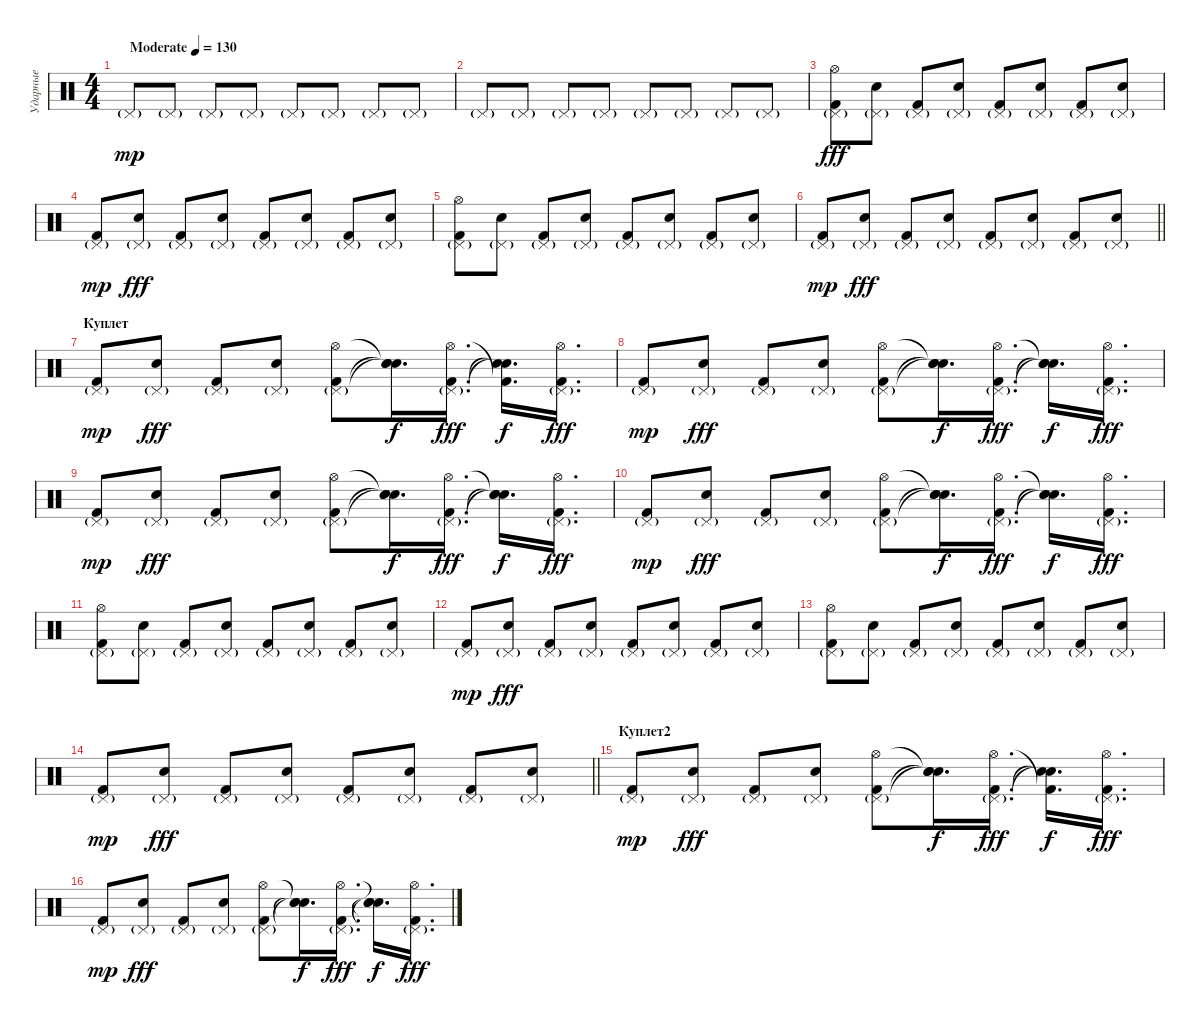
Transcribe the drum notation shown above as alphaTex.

\track ("Ударные" "Ударные") {instrument percussion}
\staff {score}
\articulation defaults
\ts (4 4)
\tempo (130 "Moderate")
\clef neutral
\ks c "Pedal Hi-Hat (hit)"{g}.8{dy mp} "Pedal Hi-Hat (hit)"{g}.8 "Pedal Hi-Hat (hit)"{g}.8 "Pedal Hi-Hat (hit)"{g}.8 "Pedal Hi-Hat (hit)"{g}.8 "Pedal Hi-Hat (hit)"{g}.8 "Pedal Hi-Hat (hit)"{g}.8 "Pedal Hi-Hat (hit)"{g}.8
|
"Pedal Hi-Hat (hit)"{g}.8 "Pedal Hi-Hat (hit)"{g}.8 "Pedal Hi-Hat (hit)"{g}.8 "Pedal Hi-Hat (hit)"{g}.8 "Pedal Hi-Hat (hit)"{g}.8 "Pedal Hi-Hat (hit)"{g}.8 "Pedal Hi-Hat (hit)"{g}.8 "Pedal Hi-Hat (hit)"{g}.8 |
("Pedal Hi-Hat (hit)"{g} "Kick (hit) 2" "Hi-Hat (open)").8{dy fff} ("Pedal Hi-Hat (hit)"{g} "Electric Snare (hit)").8 ("Pedal Hi-Hat (hit)"{g} "Kick (hit) 2").8 ("Pedal Hi-Hat (hit)"{g} "Electric Snare (hit)").8 ("Pedal Hi-Hat (hit)"{g} "Kick (hit) 2").8 ("Pedal Hi-Hat (hit)"{g} "Electric Snare (hit)").8 ("Pedal Hi-Hat (hit)"{g} "Kick (hit) 2").8 ("Pedal Hi-Hat (hit)"{g} "Electric Snare (hit)").8 |
("Pedal Hi-Hat (hit)"{g} "Kick (hit) 2").8{dy mp} ("Pedal Hi-Hat (hit)"{g} "Electric Snare (hit)").8{dy fff} ("Pedal Hi-Hat (hit)"{g} "Kick (hit) 2").8 ("Pedal Hi-Hat (hit)"{g} "Electric Snare (hit)").8 ("Pedal Hi-Hat (hit)"{g} "Kick (hit) 2").8 ("Pedal Hi-Hat (hit)"{g} "Electric Snare (hit)").8 ("Pedal Hi-Hat (hit)"{g} "Kick (hit) 2").8 ("Pedal Hi-Hat (hit)"{g} "Electric Snare (hit)").8 |
("Pedal Hi-Hat (hit)"{g} "Kick (hit) 2" "Hi-Hat (open)").8 ("Pedal Hi-Hat (hit)"{g} "Electric Snare (hit)").8 ("Pedal Hi-Hat (hit)"{g} "Kick (hit) 2").8 ("Pedal Hi-Hat (hit)"{g} "Electric Snare (hit)").8 ("Pedal Hi-Hat (hit)"{g} "Kick (hit) 2").8 ("Pedal Hi-Hat (hit)"{g} "Electric Snare (hit)").8 ("Pedal Hi-Hat (hit)"{g} "Kick (hit) 2").8 ("Pedal Hi-Hat (hit)"{g} "Electric Snare (hit)").8 |
\barLineRight lightlight
("Pedal Hi-Hat (hit)"{g} "Kick (hit) 2").8{dy mp} ("Pedal Hi-Hat (hit)"{g} "Electric Snare (hit)").8{dy fff} ("Pedal Hi-Hat (hit)"{g} "Kick (hit) 2").8 ("Pedal Hi-Hat (hit)"{g} "Electric Snare (hit)").8 ("Pedal Hi-Hat (hit)"{g} "Kick (hit) 2").8 ("Pedal Hi-Hat (hit)"{g} "Electric Snare (hit)").8 ("Pedal Hi-Hat (hit)"{g} "Kick (hit) 2").8 ("Pedal Hi-Hat (hit)"{g} "Electric Snare (hit)").8 |
\section ("" "Куплет")
("Pedal Hi-Hat (hit)"{g} "Kick (hit) 2").8{dy mp} ("Pedal Hi-Hat (hit)"{g} "Electric Snare (hit)").8{dy fff} ("Pedal Hi-Hat (hit)"{g} "Kick (hit) 2").8 ("Pedal Hi-Hat (hit)"{g} "Electric Snare (hit)").8 ("Pedal Hi-Hat (hit)"{g} "Hi-Hat (open)" "Kick (hit) 2").8 ("Snare (hit)"{t} "Snare (hit)"{t} "Snare (hit)"{t}).16{d dy f} ("Pedal Hi-Hat (hit)"{g} "Hi-Hat (open)" "Kick (hit) 2").16{d dy fff} ("Snare (hit)"{t} "Kick (hit) 2"{t} "Snare (hit)"{t}).16{d dy f} ("Pedal Hi-Hat (hit)"{g} "Hi-Hat (open)" "Kick (hit) 2").16{d dy fff} |
("Pedal Hi-Hat (hit)"{g} "Kick (hit) 2").8{dy mp} ("Pedal Hi-Hat (hit)"{g} "Electric Snare (hit)").8{dy fff} ("Pedal Hi-Hat (hit)"{g} "Kick (hit) 2").8 ("Pedal Hi-Hat (hit)"{g} "Electric Snare (hit)").8 ("Pedal Hi-Hat (hit)"{g} "Hi-Hat (open)" "Kick (hit) 2").8 ("Snare (hit)"{t} "Snare (hit)"{t} "Snare (hit)"{t}).16{d dy f} ("Pedal Hi-Hat (hit)"{g} "Hi-Hat (open)" "Kick (hit) 2").16{d dy fff} ("Snare (hit)"{t} "Snare (hit)"{t} "Snare (hit)"{t}).16{d dy f} ("Pedal Hi-Hat (hit)"{g} "Hi-Hat (open)" "Kick (hit) 2").16{d dy fff} |
("Pedal Hi-Hat (hit)"{g} "Kick (hit) 2").8{dy mp} ("Pedal Hi-Hat (hit)"{g} "Electric Snare (hit)").8{dy fff} ("Pedal Hi-Hat (hit)"{g} "Kick (hit) 2").8 ("Pedal Hi-Hat (hit)"{g} "Electric Snare (hit)").8 ("Pedal Hi-Hat (hit)"{g} "Hi-Hat (open)" "Kick (hit) 2").8 ("Snare (hit)"{t} "Snare (hit)"{t} "Snare (hit)"{t}).16{d dy f} ("Pedal Hi-Hat (hit)"{g} "Hi-Hat (open)" "Kick (hit) 2").16{d dy fff} ("Snare (hit)"{t} "Snare (hit)"{t} "Snare (hit)"{t}).16{d dy f} ("Pedal Hi-Hat (hit)"{g} "Hi-Hat (open)" "Kick (hit) 2").16{d dy fff} |
("Pedal Hi-Hat (hit)"{g} "Kick (hit) 2").8{dy mp} ("Pedal Hi-Hat (hit)"{g} "Electric Snare (hit)").8{dy fff} ("Pedal Hi-Hat (hit)"{g} "Kick (hit) 2").8 ("Pedal Hi-Hat (hit)"{g} "Electric Snare (hit)").8 ("Pedal Hi-Hat (hit)"{g} "Hi-Hat (open)" "Kick (hit) 2").8 ("Snare (hit)"{t} "Snare (hit)"{t} "Snare (hit)"{t}).16{d dy f} ("Pedal Hi-Hat (hit)"{g} "Hi-Hat (open)" "Kick (hit) 2").16{d dy fff} ("Snare (hit)"{t} "Snare (hit)"{t} "Snare (hit)"{t}).16{d dy f} ("Pedal Hi-Hat (hit)"{g} "Hi-Hat (open)" "Kick (hit) 2").16{d dy fff} |
("Pedal Hi-Hat (hit)"{g} "Kick (hit) 2" "Hi-Hat (open)").8 ("Pedal Hi-Hat (hit)"{g} "Electric Snare (hit)").8 ("Pedal Hi-Hat (hit)"{g} "Kick (hit) 2").8 ("Pedal Hi-Hat (hit)"{g} "Electric Snare (hit)").8 ("Pedal Hi-Hat (hit)"{g} "Kick (hit) 2").8 ("Pedal Hi-Hat (hit)"{g} "Electric Snare (hit)").8 ("Pedal Hi-Hat (hit)"{g} "Kick (hit) 2").8 ("Pedal Hi-Hat (hit)"{g} "Electric Snare (hit)").8 |
("Pedal Hi-Hat (hit)"{g} "Kick (hit) 2").8{dy mp} ("Pedal Hi-Hat (hit)"{g} "Electric Snare (hit)").8{dy fff} ("Pedal Hi-Hat (hit)"{g} "Kick (hit) 2").8 ("Pedal Hi-Hat (hit)"{g} "Electric Snare (hit)").8 ("Pedal Hi-Hat (hit)"{g} "Kick (hit) 2").8 ("Pedal Hi-Hat (hit)"{g} "Electric Snare (hit)").8 ("Pedal Hi-Hat (hit)"{g} "Kick (hit) 2").8 ("Pedal Hi-Hat (hit)"{g} "Electric Snare (hit)").8 |
("Pedal Hi-Hat (hit)"{g} "Kick (hit) 2" "Hi-Hat (open)").8 ("Pedal Hi-Hat (hit)"{g} "Electric Snare (hit)").8 ("Pedal Hi-Hat (hit)"{g} "Kick (hit) 2").8 ("Pedal Hi-Hat (hit)"{g} "Electric Snare (hit)").8 ("Pedal Hi-Hat (hit)"{g} "Kick (hit) 2").8 ("Pedal Hi-Hat (hit)"{g} "Electric Snare (hit)").8 ("Pedal Hi-Hat (hit)"{g} "Kick (hit) 2").8 ("Pedal Hi-Hat (hit)"{g} "Electric Snare (hit)").8 |
\barLineRight lightlight
("Pedal Hi-Hat (hit)"{g} "Kick (hit) 2").8{dy mp} ("Pedal Hi-Hat (hit)"{g} "Electric Snare (hit)").8{dy fff} ("Pedal Hi-Hat (hit)"{g} "Kick (hit) 2").8 ("Pedal Hi-Hat (hit)"{g} "Electric Snare (hit)").8 ("Pedal Hi-Hat (hit)"{g} "Kick (hit) 2").8 ("Pedal Hi-Hat (hit)"{g} "Electric Snare (hit)").8 ("Pedal Hi-Hat (hit)"{g} "Kick (hit) 2").8 ("Pedal Hi-Hat (hit)"{g} "Electric Snare (hit)").8 |
\section ("" "Куплет2")
("Pedal Hi-Hat (hit)"{g} "Kick (hit) 2").8{dy mp} ("Pedal Hi-Hat (hit)"{g} "Electric Snare (hit)").8{dy fff} ("Pedal Hi-Hat (hit)"{g} "Kick (hit) 2").8 ("Pedal Hi-Hat (hit)"{g} "Electric Snare (hit)").8 ("Pedal Hi-Hat (hit)"{g} "Hi-Hat (open)" "Kick (hit) 2").8 ("Snare (hit)"{t} "Snare (hit)"{t} "Snare (hit)"{t}).16{d dy f} ("Pedal Hi-Hat (hit)"{g} "Hi-Hat (open)" "Kick (hit) 2").16{d dy fff} ("Snare (hit)"{t} "Kick (hit) 2"{t} "Snare (hit)"{t}).16{d dy f} ("Pedal Hi-Hat (hit)"{g} "Hi-Hat (open)" "Kick (hit) 2").16{d dy fff} |
("Pedal Hi-Hat (hit)"{g} "Kick (hit) 2").8{dy mp} ("Pedal Hi-Hat (hit)"{g} "Electric Snare (hit)").8{dy fff} ("Pedal Hi-Hat (hit)"{g} "Kick (hit) 2").8 ("Pedal Hi-Hat (hit)"{g} "Electric Snare (hit)").8 ("Pedal Hi-Hat (hit)"{g} "Hi-Hat (open)" "Kick (hit) 2").8 ("Snare (hit)"{t} "Snare (hit)"{t} "Snare (hit)"{t}).16{d dy f} ("Pedal Hi-Hat (hit)"{g} "Hi-Hat (open)" "Kick (hit) 2").16{d dy fff} ("Snare (hit)"{t} "Snare (hit)"{t} "Snare (hit)"{t}).16{d dy f} ("Pedal Hi-Hat (hit)"{g} "Hi-Hat (open)" "Kick (hit) 2").16{d dy fff}
